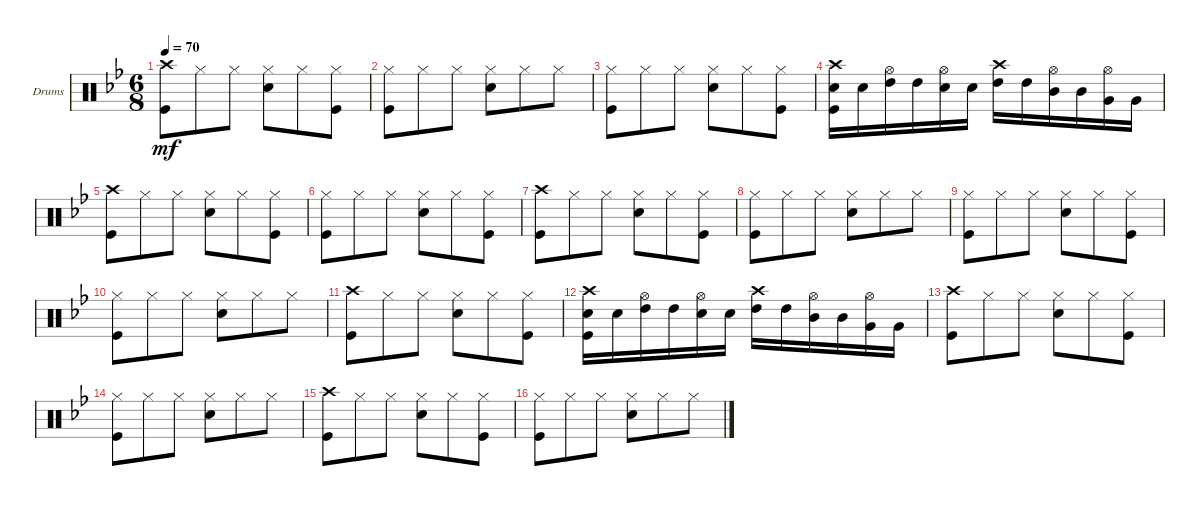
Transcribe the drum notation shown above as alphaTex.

\defaultSystemsLayout 4
\bracketExtendMode groupsimilarinstruments
\firstSystemTrackNameOrientation horizontal
\otherSystemsTrackNameOrientation horizontal
\track ("Drumkit" "Drums") {instrument percussion}
\staff {score}
\articulation defaults
\ts (6 8)
\tempo 70
\clef neutral
\ks gminor
("Kick (hit)" "Crash high (hit)").8{dy mf} "Hi-Hat (closed)".8 "Hi-Hat (closed)".8 ("Hi-Hat (closed)" "Snare (hit) 2").8 "Hi-Hat (closed)".8 ("Hi-Hat (closed)" "Kick (hit)").8 |
("Kick (hit)" "Hi-Hat (closed)").8 "Hi-Hat (closed)".8 "Hi-Hat (closed)".8 ("Hi-Hat (closed)" "Snare (hit) 2").8 "Hi-Hat (closed)".8 "Hi-Hat (closed)".8 |
("Hi-Hat (closed)" "Kick (hit)").8 "Hi-Hat (closed)".8 "Hi-Hat (closed)".8 ("Hi-Hat (closed)" "Snare (hit) 2").8 "Hi-Hat (closed)".8 ("Hi-Hat (closed)" "Kick (hit)").8 |
("Kick (hit)" "Snare (hit) 2" "Crash high (hit)").16 "Snare (hit) 2".16 ("Hi-Hat (open)" "High Tom (hit)").16 "High Tom (hit)".16 ("Hi-Hat (open)" "Snare (hit) 2").16 "Snare (hit) 2".16 ("High Tom (hit)" "Crash high (hit)").16 "High Tom (hit)".16 ("Mid Tom (hit)" "Hi-Hat (open)").16 "Mid Tom (hit)".16 ("Very Low Tom (hit)" "Hi-Hat (open)").16 "Very Low Tom (hit)".16 |
("Kick (hit)" "Crash high (hit)").8 "Hi-Hat (closed)".8 "Hi-Hat (closed)".8 ("Hi-Hat (closed)" "Snare (hit) 2").8 "Hi-Hat (closed)".8 ("Hi-Hat (closed)" "Kick (hit)").8 |
("Hi-Hat (closed)" "Kick (hit)").8 "Hi-Hat (closed)".8 "Hi-Hat (closed)".8 ("Hi-Hat (closed)" "Snare (hit) 2").8 "Hi-Hat (closed)".8 ("Hi-Hat (closed)" "Kick (hit)").8 |
("Kick (hit)" "Crash high (hit)").8 "Hi-Hat (closed)".8 "Hi-Hat (closed)".8 ("Hi-Hat (closed)" "Snare (hit) 2").8 "Hi-Hat (closed)".8 ("Hi-Hat (closed)" "Kick (hit)").8 |
("Hi-Hat (closed)" "Kick (hit)").8 "Hi-Hat (closed)".8 "Hi-Hat (closed)".8 ("Hi-Hat (closed)" "Snare (hit) 2").8 "Hi-Hat (closed)".8 "Hi-Hat (closed)".8 |
("Hi-Hat (closed)" "Kick (hit)").8 "Hi-Hat (closed)".8 "Hi-Hat (closed)".8 ("Hi-Hat (closed)" "Snare (hit) 2").8 "Hi-Hat (closed)".8 ("Hi-Hat (closed)" "Kick (hit)").8 |
("Hi-Hat (closed)" "Kick (hit)").8 "Hi-Hat (closed)".8 "Hi-Hat (closed)".8 ("Hi-Hat (closed)" "Snare (hit) 2").8 "Hi-Hat (closed)".8 "Hi-Hat (closed)".8 |
("Kick (hit)" "Crash high (hit)").8 "Hi-Hat (closed)".8 "Hi-Hat (closed)".8 ("Hi-Hat (closed)" "Snare (hit) 2").8 "Hi-Hat (closed)".8 ("Hi-Hat (closed)" "Kick (hit)").8 |
("Kick (hit)" "Snare (hit) 2" "Crash high (hit)").16 "Snare (hit) 2".16 ("Hi-Hat (open)" "High Tom (hit)").16 "High Tom (hit)".16 ("Hi-Hat (open)" "Snare (hit) 2").16 "Snare (hit) 2".16 ("High Tom (hit)" "Crash high (hit)").16 "High Tom (hit)".16 ("Mid Tom (hit)" "Hi-Hat (open)").16 "Mid Tom (hit)".16 ("Very Low Tom (hit)" "Hi-Hat (open)").16 "Very Low Tom (hit)".16 |
("Kick (hit)" "Crash high (hit)").8 "Hi-Hat (closed)".8 "Hi-Hat (closed)".8 ("Hi-Hat (closed)" "Snare (hit) 2").8 "Hi-Hat (closed)".8 ("Hi-Hat (closed)" "Kick (hit)").8 |
("Hi-Hat (closed)" "Kick (hit)").8 "Hi-Hat (closed)".8 "Hi-Hat (closed)".8 ("Hi-Hat (closed)" "Snare (hit) 2").8 "Hi-Hat (closed)".8 "Hi-Hat (closed)".8 |
("Kick (hit)" "Crash high (hit)").8 "Hi-Hat (closed)".8 "Hi-Hat (closed)".8 ("Hi-Hat (closed)" "Snare (hit) 2").8 "Hi-Hat (closed)".8 ("Hi-Hat (closed)" "Kick (hit)").8 |
("Hi-Hat (closed)" "Kick (hit)").8 "Hi-Hat (closed)".8 "Hi-Hat (closed)".8 ("Hi-Hat (closed)" "Snare (hit) 2").8 "Hi-Hat (closed)".8 "Hi-Hat (closed)".8
